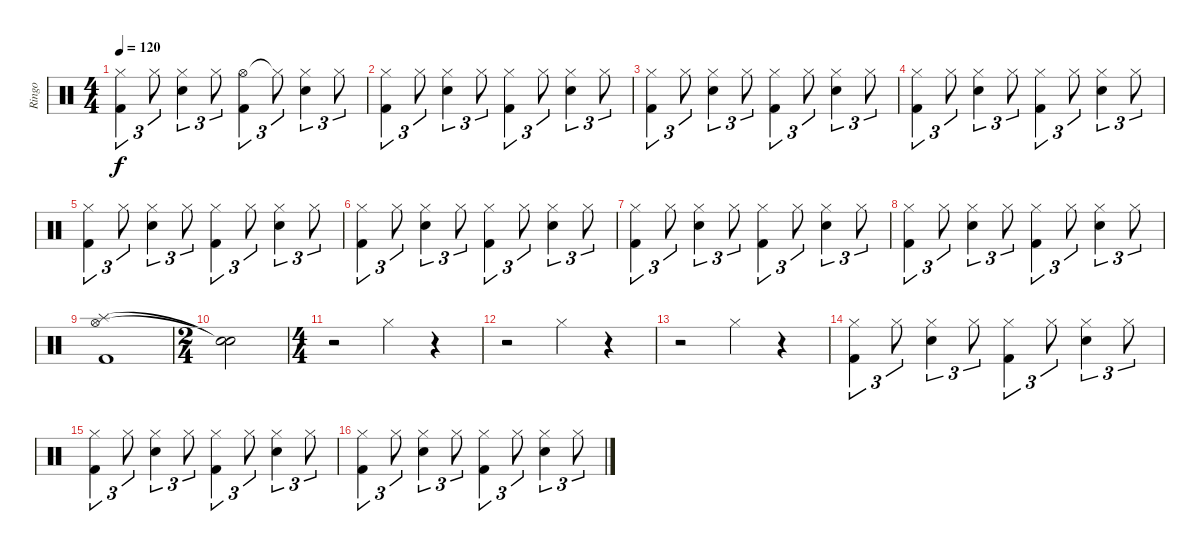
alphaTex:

\track ("Ringo" "Ringo") {instrument percussion}
\staff {score}
\articulation defaults
\ts (4 4)
\tempo 120
\clef neutral
\ks c
("Hi-Hat (closed)" "Kick (hit) 2").4{tu (3 2) dy f} "Hi-Hat (closed)".8{tu (3 2)} ("Hi-Hat (closed)" "Snare (hit) 2").4{tu (3 2)} "Hi-Hat (closed)".8{tu (3 2)} ("Hi-Hat (open)" "Kick (hit) 2").4{tu (3 2)} "Hi-Hat (closed)"{t}.8{tu (3 2)} ("Hi-Hat (closed)" "Snare (hit) 2").4{tu (3 2)} "Hi-Hat (closed)".8{tu (3 2)} |
("Hi-Hat (closed)" "Kick (hit) 2").4{tu (3 2)} "Hi-Hat (closed)".8{tu (3 2)} ("Hi-Hat (closed)" "Snare (hit) 2").4{tu (3 2)} "Hi-Hat (closed)".8{tu (3 2)} ("Hi-Hat (closed)" "Kick (hit) 2").4{tu (3 2)} "Hi-Hat (closed)".8{tu (3 2)} ("Hi-Hat (closed)" "Snare (hit) 2").4{tu (3 2)} "Hi-Hat (closed)".8{tu (3 2)} |
("Hi-Hat (closed)" "Kick (hit) 2").4{tu (3 2)} "Hi-Hat (closed)".8{tu (3 2)} ("Hi-Hat (closed)" "Snare (hit) 2").4{tu (3 2)} "Hi-Hat (closed)".8{tu (3 2)} ("Hi-Hat (closed)" "Kick (hit) 2").4{tu (3 2)} "Hi-Hat (closed)".8{tu (3 2)} ("Hi-Hat (closed)" "Snare (hit) 2").4{tu (3 2)} "Hi-Hat (closed)".8{tu (3 2)} |
("Hi-Hat (closed)" "Kick (hit) 2").4{tu (3 2)} "Hi-Hat (closed)".8{tu (3 2)} ("Hi-Hat (closed)" "Snare (hit) 2").4{tu (3 2)} "Hi-Hat (closed)".8{tu (3 2)} ("Hi-Hat (closed)" "Kick (hit) 2").4{tu (3 2)} "Hi-Hat (closed)".8{tu (3 2)} ("Hi-Hat (closed)" "Snare (hit) 2").4{tu (3 2)} "Hi-Hat (closed)".8{tu (3 2)} |
("Hi-Hat (closed)" "Kick (hit) 2").4{tu (3 2)} "Hi-Hat (closed)".8{tu (3 2)} ("Hi-Hat (closed)" "Snare (hit) 2").4{tu (3 2)} "Hi-Hat (closed)".8{tu (3 2)} ("Hi-Hat (closed)" "Kick (hit) 2").4{tu (3 2)} "Hi-Hat (closed)".8{tu (3 2)} ("Hi-Hat (closed)" "Snare (hit) 2").4{tu (3 2)} "Hi-Hat (closed)".8{tu (3 2)} |
("Hi-Hat (closed)" "Kick (hit) 2").4{tu (3 2)} "Hi-Hat (closed)".8{tu (3 2)} ("Hi-Hat (closed)" "Snare (hit) 2").4{tu (3 2)} "Hi-Hat (closed)".8{tu (3 2)} ("Hi-Hat (closed)" "Kick (hit) 2").4{tu (3 2)} "Hi-Hat (closed)".8{tu (3 2)} ("Hi-Hat (closed)" "Snare (hit) 2").4{tu (3 2)} "Hi-Hat (closed)".8{tu (3 2)} |
("Hi-Hat (closed)" "Kick (hit) 2").4{tu (3 2)} "Hi-Hat (closed)".8{tu (3 2)} ("Hi-Hat (closed)" "Snare (hit) 2").4{tu (3 2)} "Hi-Hat (closed)".8{tu (3 2)} ("Hi-Hat (closed)" "Kick (hit) 2").4{tu (3 2)} "Hi-Hat (closed)".8{tu (3 2)} ("Hi-Hat (closed)" "Snare (hit) 2").4{tu (3 2)} "Hi-Hat (closed)".8{tu (3 2)} |
("Hi-Hat (closed)" "Kick (hit) 2").4{tu (3 2)} "Hi-Hat (closed)".8{tu (3 2)} ("Hi-Hat (closed)" "Snare (hit) 2").4{tu (3 2)} "Hi-Hat (closed)".8{tu (3 2)} ("Hi-Hat (closed)" "Kick (hit) 2").4{tu (3 2)} "Hi-Hat (closed)".8{tu (3 2)} ("Hi-Hat (closed)" "Snare (hit) 2").4{tu (3 2)} "Hi-Hat (closed)".8{tu (3 2)} |
("Splash (hit)" "Hi-Hat (open)" "Kick (hit) 2").1 |
\ts (2 4)
("Snare (hit)"{t} "Snare (hit)"{t}).2 |
\ts (4 4)
r.2 "Hi-Hat (closed)".4 r.4 |
r.2 "Hi-Hat (closed)".4 r.4 |
r.2 "Hi-Hat (closed)".4 r.4 |
("Hi-Hat (closed)" "Kick (hit) 2").4{tu (3 2)} "Hi-Hat (closed)".8{tu (3 2)} ("Hi-Hat (closed)" "Snare (hit) 2").4{tu (3 2)} "Hi-Hat (closed)".8{tu (3 2)} ("Hi-Hat (closed)" "Kick (hit) 2").4{tu (3 2)} "Hi-Hat (closed)".8{tu (3 2)} ("Hi-Hat (closed)" "Snare (hit) 2").4{tu (3 2)} "Hi-Hat (closed)".8{tu (3 2)} |
("Hi-Hat (closed)" "Kick (hit) 2").4{tu (3 2)} "Hi-Hat (closed)".8{tu (3 2)} ("Hi-Hat (closed)" "Snare (hit) 2").4{tu (3 2)} "Hi-Hat (closed)".8{tu (3 2)} ("Hi-Hat (closed)" "Kick (hit) 2").4{tu (3 2)} "Hi-Hat (closed)".8{tu (3 2)} ("Hi-Hat (closed)" "Snare (hit) 2").4{tu (3 2)} "Hi-Hat (closed)".8{tu (3 2)} |
("Hi-Hat (closed)" "Kick (hit) 2").4{tu (3 2)} "Hi-Hat (closed)".8{tu (3 2)} ("Hi-Hat (closed)" "Snare (hit) 2").4{tu (3 2)} "Hi-Hat (closed)".8{tu (3 2)} ("Hi-Hat (closed)" "Kick (hit) 2").4{tu (3 2)} "Hi-Hat (closed)".8{tu (3 2)} ("Hi-Hat (closed)" "Snare (hit) 2").4{tu (3 2)} "Hi-Hat (closed)".8{tu (3 2)}
